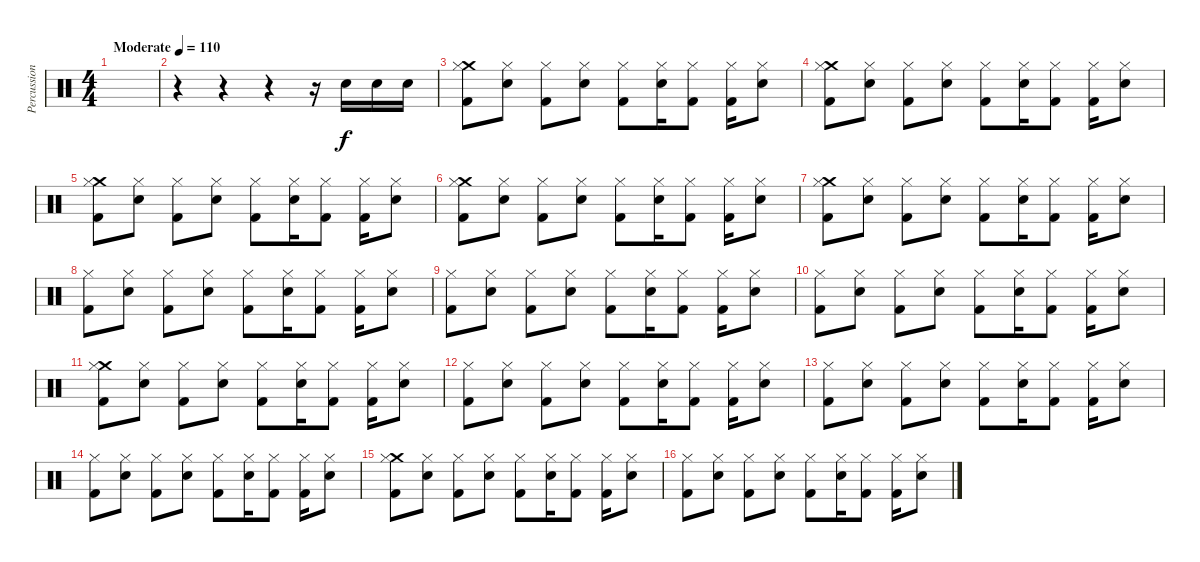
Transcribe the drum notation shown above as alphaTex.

\track ("Percussion" "Percussion") {instrument percussion}
\staff {score}
\articulation defaults
\ts (4 4)
\tempo (110 "Moderate")
\clef neutral
\ks c
|
r.4 r.4 r.4 r.16 "Electric Snare (hit)".16 "Electric Snare (hit)".16 "Electric Snare (hit)".16 |
("Crash medium (hit)" "Hi-Hat (closed)" "Kick (hit) 2").8 ("Hi-Hat (closed)" "Electric Snare (hit)").8 ("Hi-Hat (closed)" "Kick (hit) 2").8 ("Hi-Hat (closed)" "Electric Snare (hit)").8 ("Hi-Hat (closed)" "Kick (hit) 2").8 ("Hi-Hat (closed)" "Electric Snare (hit)").16 ("Hi-Hat (closed)" "Kick (hit) 2").8 ("Hi-Hat (closed)" "Kick (hit) 2").16 ("Hi-Hat (closed)" "Electric Snare (hit)").8 |
("Crash medium (hit)" "Hi-Hat (closed)" "Kick (hit) 2").8 ("Hi-Hat (closed)" "Electric Snare (hit)").8 ("Hi-Hat (closed)" "Kick (hit) 2").8 ("Hi-Hat (closed)" "Electric Snare (hit)").8 ("Hi-Hat (closed)" "Kick (hit) 2").8 ("Hi-Hat (closed)" "Electric Snare (hit)").16 ("Hi-Hat (closed)" "Kick (hit) 2").8 ("Hi-Hat (closed)" "Kick (hit) 2").16 ("Hi-Hat (closed)" "Electric Snare (hit)").8 |
("Crash medium (hit)" "Hi-Hat (closed)" "Kick (hit) 2").8 ("Hi-Hat (closed)" "Electric Snare (hit)").8 ("Hi-Hat (closed)" "Kick (hit) 2").8 ("Hi-Hat (closed)" "Electric Snare (hit)").8 ("Hi-Hat (closed)" "Kick (hit) 2").8 ("Hi-Hat (closed)" "Electric Snare (hit)").16 ("Hi-Hat (closed)" "Kick (hit) 2").8 ("Hi-Hat (closed)" "Kick (hit) 2").16 ("Hi-Hat (closed)" "Electric Snare (hit)").8 |
("Crash medium (hit)" "Hi-Hat (closed)" "Kick (hit) 2").8 ("Hi-Hat (closed)" "Electric Snare (hit)").8 ("Hi-Hat (closed)" "Kick (hit) 2").8 ("Hi-Hat (closed)" "Electric Snare (hit)").8 ("Hi-Hat (closed)" "Kick (hit) 2").8 ("Hi-Hat (closed)" "Electric Snare (hit)").16 ("Hi-Hat (closed)" "Kick (hit) 2").8 ("Hi-Hat (closed)" "Kick (hit) 2").16 ("Hi-Hat (closed)" "Electric Snare (hit)").8 |
("Crash medium (hit)" "Hi-Hat (closed)" "Kick (hit) 2").8 ("Hi-Hat (closed)" "Electric Snare (hit)").8 ("Hi-Hat (closed)" "Kick (hit) 2").8 ("Hi-Hat (closed)" "Electric Snare (hit)").8 ("Hi-Hat (closed)" "Kick (hit) 2").8 ("Hi-Hat (closed)" "Electric Snare (hit)").16 ("Hi-Hat (closed)" "Kick (hit) 2").8 ("Hi-Hat (closed)" "Kick (hit) 2").16 ("Hi-Hat (closed)" "Electric Snare (hit)").8 |
("Hi-Hat (closed)" "Kick (hit) 2").8 ("Hi-Hat (closed)" "Electric Snare (hit)").8 ("Hi-Hat (closed)" "Kick (hit) 2").8 ("Hi-Hat (closed)" "Electric Snare (hit)").8 ("Hi-Hat (closed)" "Kick (hit) 2").8 ("Hi-Hat (closed)" "Electric Snare (hit)").16 ("Hi-Hat (closed)" "Kick (hit) 2").8 ("Hi-Hat (closed)" "Kick (hit) 2").16 ("Hi-Hat (closed)" "Electric Snare (hit)").8 |
("Hi-Hat (closed)" "Kick (hit) 2").8 ("Hi-Hat (closed)" "Electric Snare (hit)").8 ("Hi-Hat (closed)" "Kick (hit) 2").8 ("Hi-Hat (closed)" "Electric Snare (hit)").8 ("Hi-Hat (closed)" "Kick (hit) 2").8 ("Hi-Hat (closed)" "Electric Snare (hit)").16 ("Hi-Hat (closed)" "Kick (hit) 2").8 ("Hi-Hat (closed)" "Kick (hit) 2").16 ("Hi-Hat (closed)" "Electric Snare (hit)").8 |
("Hi-Hat (closed)" "Kick (hit) 2").8 ("Hi-Hat (closed)" "Electric Snare (hit)").8 ("Hi-Hat (closed)" "Kick (hit) 2").8 ("Hi-Hat (closed)" "Electric Snare (hit)").8 ("Hi-Hat (closed)" "Kick (hit) 2").8 ("Hi-Hat (closed)" "Electric Snare (hit)").16 ("Hi-Hat (closed)" "Kick (hit) 2").8 ("Hi-Hat (closed)" "Kick (hit) 2").16 ("Hi-Hat (closed)" "Electric Snare (hit)").8 |
("Crash medium (hit)" "Hi-Hat (closed)" "Kick (hit) 2").8 ("Hi-Hat (closed)" "Electric Snare (hit)").8 ("Hi-Hat (closed)" "Kick (hit) 2").8 ("Hi-Hat (closed)" "Electric Snare (hit)").8 ("Hi-Hat (closed)" "Kick (hit) 2").8 ("Hi-Hat (closed)" "Electric Snare (hit)").16 ("Hi-Hat (closed)" "Kick (hit) 2").8 ("Hi-Hat (closed)" "Kick (hit) 2").16 ("Hi-Hat (closed)" "Electric Snare (hit)").8 |
("Hi-Hat (closed)" "Kick (hit) 2").8 ("Hi-Hat (closed)" "Electric Snare (hit)").8 ("Hi-Hat (closed)" "Kick (hit) 2").8 ("Hi-Hat (closed)" "Electric Snare (hit)").8 ("Hi-Hat (closed)" "Kick (hit) 2").8 ("Hi-Hat (closed)" "Electric Snare (hit)").16 ("Hi-Hat (closed)" "Kick (hit) 2").8 ("Hi-Hat (closed)" "Kick (hit) 2").16 ("Hi-Hat (closed)" "Electric Snare (hit)").8 |
("Hi-Hat (closed)" "Kick (hit) 2").8 ("Hi-Hat (closed)" "Electric Snare (hit)").8 ("Hi-Hat (closed)" "Kick (hit) 2").8 ("Hi-Hat (closed)" "Electric Snare (hit)").8 ("Hi-Hat (closed)" "Kick (hit) 2").8 ("Hi-Hat (closed)" "Electric Snare (hit)").16 ("Hi-Hat (closed)" "Kick (hit) 2").8 ("Hi-Hat (closed)" "Kick (hit) 2").16 ("Hi-Hat (closed)" "Electric Snare (hit)").8 |
("Hi-Hat (closed)" "Kick (hit) 2").8 ("Hi-Hat (closed)" "Electric Snare (hit)").8 ("Hi-Hat (closed)" "Kick (hit) 2").8 ("Hi-Hat (closed)" "Electric Snare (hit)").8 ("Hi-Hat (closed)" "Kick (hit) 2").8 ("Hi-Hat (closed)" "Electric Snare (hit)").16 ("Hi-Hat (closed)" "Kick (hit) 2").8 ("Hi-Hat (closed)" "Kick (hit) 2").16 ("Hi-Hat (closed)" "Electric Snare (hit)").8 |
("Crash medium (hit)" "Hi-Hat (closed)" "Kick (hit) 2").8 ("Hi-Hat (closed)" "Electric Snare (hit)").8 ("Hi-Hat (closed)" "Kick (hit) 2").8 ("Hi-Hat (closed)" "Electric Snare (hit)").8 ("Hi-Hat (closed)" "Kick (hit) 2").8 ("Hi-Hat (closed)" "Electric Snare (hit)").16 ("Hi-Hat (closed)" "Kick (hit) 2").8 ("Hi-Hat (closed)" "Kick (hit) 2").16 ("Hi-Hat (closed)" "Electric Snare (hit)").8 |
("Hi-Hat (closed)" "Kick (hit) 2").8 ("Hi-Hat (closed)" "Electric Snare (hit)").8 ("Hi-Hat (closed)" "Kick (hit) 2").8 ("Hi-Hat (closed)" "Electric Snare (hit)").8 ("Hi-Hat (closed)" "Kick (hit) 2").8 ("Hi-Hat (closed)" "Electric Snare (hit)").16 ("Hi-Hat (closed)" "Kick (hit) 2").8 ("Hi-Hat (closed)" "Kick (hit) 2").16 ("Hi-Hat (closed)" "Electric Snare (hit)").8
